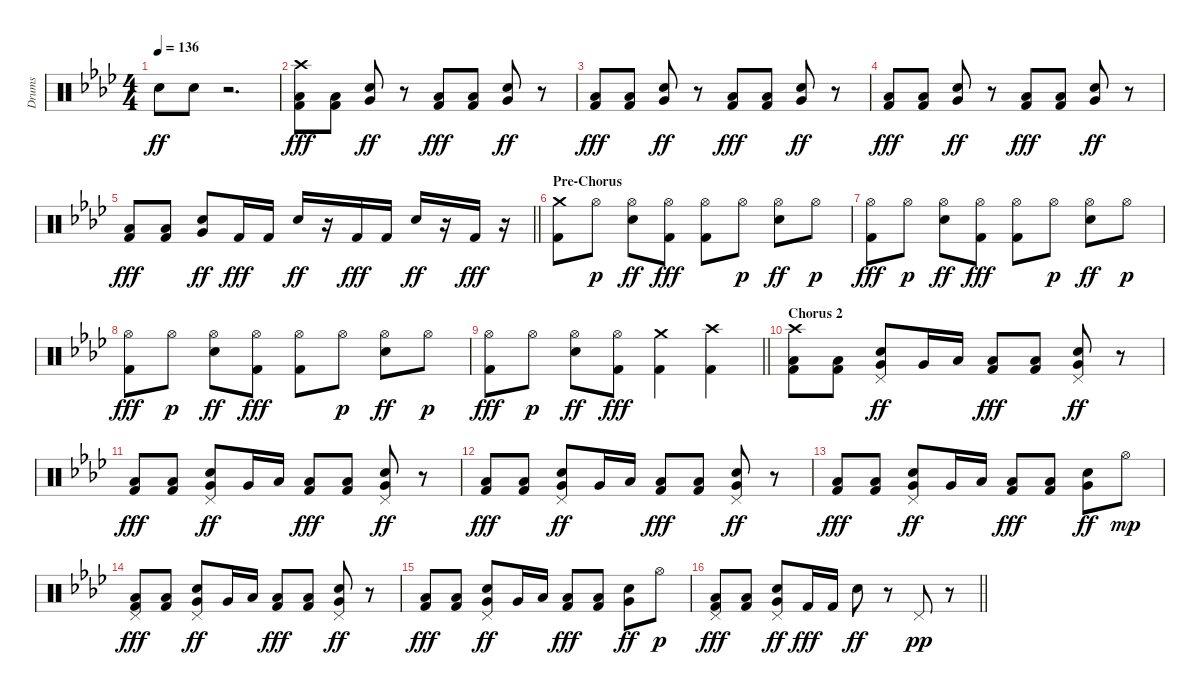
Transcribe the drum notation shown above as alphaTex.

\track ("Drums" "Drums") {instrument percussion}
\staff {score}
\articulation defaults
\ts (4 4)
\tempo 136
\clef neutral
\ks fminor "Electric Snare (hit)".8{dy ff} "Electric Snare (hit)".8
r.2{d} |
("Crash high (hit)" "Low Floor Tom (hit)" "Kick (hit) 2").8{dy fff} ("Low Floor Tom (hit)" "Kick (hit) 2").8 ("Electric Snare (hit)" "Very Low Tom (hit)").8{dy ff} r.8 ("Low Floor Tom (hit)" "Kick (hit) 2").8{dy fff} ("Low Floor Tom (hit)" "Kick (hit) 2").8 ("Electric Snare (hit)" "Very Low Tom (hit)").8{dy ff} r.8 |
("Low Floor Tom (hit)" "Kick (hit) 2").8{dy fff} ("Low Floor Tom (hit)" "Kick (hit) 2").8 ("Electric Snare (hit)" "Very Low Tom (hit)").8{dy ff} r.8 ("Low Floor Tom (hit)" "Kick (hit) 2").8{dy fff} ("Low Floor Tom (hit)" "Kick (hit) 2").8 ("Electric Snare (hit)" "Very Low Tom (hit)").8{dy ff} r.8 |
("Low Floor Tom (hit)" "Kick (hit) 2").8{dy fff} ("Low Floor Tom (hit)" "Kick (hit) 2").8 ("Electric Snare (hit)" "Very Low Tom (hit)").8{dy ff} r.8 ("Low Floor Tom (hit)" "Kick (hit) 2").8{dy fff} ("Low Floor Tom (hit)" "Kick (hit) 2").8 ("Electric Snare (hit)" "Very Low Tom (hit)").8{dy ff} r.8 |
\barLineRight lightlight
("Low Floor Tom (hit)" "Kick (hit) 2").8{dy fff} ("Low Floor Tom (hit)" "Kick (hit) 2").8 ("Electric Snare (hit)" "Very Low Tom (hit)").8{dy ff} "Kick (hit) 2".16{dy fff} "Kick (hit) 2".16 "Electric Snare (hit)".16{dy ff} r.16 "Kick (hit) 2".16{dy fff} "Kick (hit) 2".16 "Electric Snare (hit)".16{dy ff} r.16 "Kick (hit) 2".16{dy fff} r.16 |
\section ("" "Pre-Chorus")
("Crash medium (hit)" "Kick (hit) 2").8 "Hi-Hat (open)".8{dy p} ("Hi-Hat (open)" "Electric Snare (hit)").8{dy ff} ("Hi-Hat (open)" "Kick (hit) 2").8{dy fff} ("Hi-Hat (open)" "Kick (hit) 2").8 "Hi-Hat (open)".8{dy p} ("Hi-Hat (open)" "Electric Snare (hit)").8{dy ff} "Hi-Hat (open)".8{dy p} |
("Hi-Hat (open)" "Kick (hit) 2").8{dy fff} "Hi-Hat (open)".8{dy p} ("Hi-Hat (open)" "Electric Snare (hit)").8{dy ff} ("Hi-Hat (open)" "Kick (hit) 2").8{dy fff} ("Hi-Hat (open)" "Kick (hit) 2").8 "Hi-Hat (open)".8{dy p} ("Hi-Hat (open)" "Electric Snare (hit)").8{dy ff} "Hi-Hat (open)".8{dy p} |
("Hi-Hat (open)" "Kick (hit) 2").8{dy fff} "Hi-Hat (open)".8{dy p} ("Hi-Hat (open)" "Electric Snare (hit)").8{dy ff} ("Hi-Hat (open)" "Kick (hit) 2").8{dy fff} ("Hi-Hat (open)" "Kick (hit) 2").8 "Hi-Hat (open)".8{dy p} ("Hi-Hat (open)" "Electric Snare (hit)").8{dy ff} "Hi-Hat (open)".8{dy p} |
\barLineRight lightlight
("Hi-Hat (open)" "Kick (hit) 2").8{dy fff} "Hi-Hat (open)".8{dy p} ("Hi-Hat (open)" "Electric Snare (hit)").8{dy ff} ("Hi-Hat (open)" "Kick (hit) 2").8{dy fff} ("Crash medium (hit)" "Kick (hit) 2").4 ("Crash high (hit)" "Kick (hit) 2").4 |
\section ("" "Chorus 2")
("Crash high (hit)" "Low Floor Tom (hit)" "Kick (hit) 2").8 ("Low Floor Tom (hit)" "Kick (hit) 2").8 ("Pedal Hi-Hat (hit)" "Electric Snare (hit)" "Very Low Tom (hit)").8{dy ff} "Very Low Tom (hit)".16 "Low Tom (hit)".16 ("Low Floor Tom (hit)" "Kick (hit) 2").8{dy fff} ("Low Floor Tom (hit)" "Kick (hit) 2").8 ("Pedal Hi-Hat (hit)" "Electric Snare (hit)" "Very Low Tom (hit)").8{dy ff} r.8 |
("Low Floor Tom (hit)" "Kick (hit) 2").8{dy fff} ("Low Floor Tom (hit)" "Kick (hit) 2").8 ("Pedal Hi-Hat (hit)" "Electric Snare (hit)" "Very Low Tom (hit)").8{dy ff} "Very Low Tom (hit)".16 "Low Tom (hit)".16 ("Low Floor Tom (hit)" "Kick (hit) 2").8{dy fff} ("Low Floor Tom (hit)" "Kick (hit) 2").8 ("Pedal Hi-Hat (hit)" "Electric Snare (hit)" "Very Low Tom (hit)").8{dy ff} r.8 |
("Low Floor Tom (hit)" "Kick (hit) 2").8{dy fff} ("Low Floor Tom (hit)" "Kick (hit) 2").8 ("Pedal Hi-Hat (hit)" "Electric Snare (hit)" "Very Low Tom (hit)").8{dy ff} "Very Low Tom (hit)".16 "Low Tom (hit)".16 ("Low Floor Tom (hit)" "Kick (hit) 2").8{dy fff} ("Low Floor Tom (hit)" "Kick (hit) 2").8 ("Pedal Hi-Hat (hit)" "Electric Snare (hit)" "Very Low Tom (hit)").8{dy ff} r.8 |
("Low Floor Tom (hit)" "Kick (hit) 2").8{dy fff} ("Low Floor Tom (hit)" "Kick (hit) 2").8 ("Pedal Hi-Hat (hit)" "Electric Snare (hit)" "Very Low Tom (hit)").8{dy ff} "Very Low Tom (hit)".16 "Low Tom (hit)".16 ("Low Floor Tom (hit)" "Kick (hit) 2").8{dy fff} ("Low Floor Tom (hit)" "Kick (hit) 2").8 ("Electric Snare (hit)" "Very Low Tom (hit)").8{dy ff} "Hi-Hat (open)".8{dy mp} |
("Pedal Hi-Hat (hit)" "Low Floor Tom (hit)" "Kick (hit) 2").8{dy fff} ("Low Floor Tom (hit)" "Kick (hit) 2").8 ("Pedal Hi-Hat (hit)" "Electric Snare (hit)" "Very Low Tom (hit)").8{dy ff} "Very Low Tom (hit)".16 "Low Tom (hit)".16 ("Low Floor Tom (hit)" "Kick (hit) 2").8{dy fff} ("Low Floor Tom (hit)" "Kick (hit) 2").8 ("Pedal Hi-Hat (hit)" "Electric Snare (hit)" "Very Low Tom (hit)").8{dy ff} r.8 |
("Low Floor Tom (hit)" "Kick (hit) 2").8{dy fff} ("Low Floor Tom (hit)" "Kick (hit) 2").8 ("Pedal Hi-Hat (hit)" "Electric Snare (hit)" "Very Low Tom (hit)").8{dy ff} "Very Low Tom (hit)".16 "Low Tom (hit)".16 ("Low Floor Tom (hit)" "Kick (hit) 2").8{dy fff} ("Low Floor Tom (hit)" "Kick (hit) 2").8 ("Electric Snare (hit)" "Very Low Tom (hit)").8{dy ff} "Hi-Hat (open)".8{dy p} |
\barLineRight lightlight
("Pedal Hi-Hat (hit)" "Low Floor Tom (hit)" "Kick (hit) 2").8{dy fff} ("Low Floor Tom (hit)" "Kick (hit) 2").8 ("Pedal Hi-Hat (hit)" "Electric Snare (hit)" "Very Low Tom (hit)").8{dy ff} "Kick (hit) 2".16{dy fff} "Kick (hit) 2".16 "Electric Snare (hit)".8{dy ff} r.8 "Pedal Hi-Hat (hit)".8{dy pp} r.8
